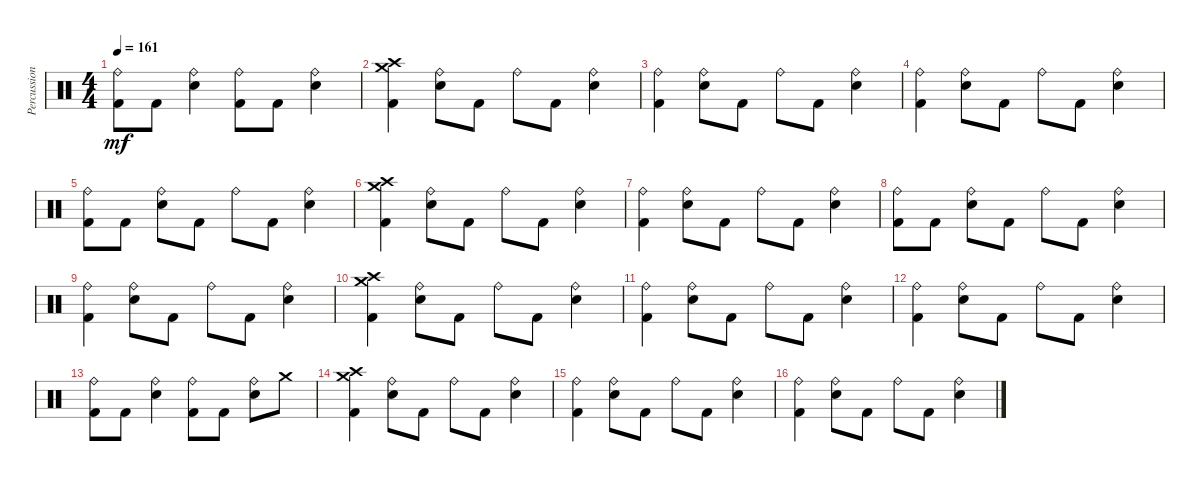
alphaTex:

\track ("Percussion" "Percussion") {instrument percussion}
\staff {score}
\articulation defaults
\ts (4 4)
\tempo 161
\clef neutral
\ks c
("Ride (bell)" "Kick (hit) 2").8{dy mf} "Kick (hit) 2".8 ("Ride (bell)" "Electric Snare (hit)").4 ("Ride (bell)" "Kick (hit) 2").8 "Kick (hit) 2".8 ("Ride (bell)" "Electric Snare (hit)").4 |
("Crash medium (hit)" "Crash high (hit)" "Kick (hit) 2").4 ("Ride (bell)" "Electric Snare (hit)").8 "Kick (hit) 2".8 "Ride (bell)".8 "Kick (hit) 2".8 ("Ride (bell)" "Electric Snare (hit)").4 |
("Ride (bell)" "Kick (hit) 2").4 ("Ride (bell)" "Electric Snare (hit)").8 "Kick (hit) 2".8 "Ride (bell)".8 "Kick (hit) 2".8 ("Ride (bell)" "Electric Snare (hit)").4 |
("Ride (bell)" "Kick (hit) 2").4 ("Ride (bell)" "Electric Snare (hit)").8 "Kick (hit) 2".8 "Ride (bell)".8 "Kick (hit) 2".8 ("Ride (bell)" "Electric Snare (hit)").4 |
("Ride (bell)" "Kick (hit) 2").8 "Kick (hit) 2".8 ("Ride (bell)" "Electric Snare (hit)").8 "Kick (hit) 2".8 "Ride (bell)".8 "Kick (hit) 2".8 ("Ride (bell)" "Electric Snare (hit)").4 |
("Crash medium (hit)" "Crash high (hit)" "Kick (hit) 2").4 ("Ride (bell)" "Electric Snare (hit)").8 "Kick (hit) 2".8 "Ride (bell)".8 "Kick (hit) 2".8 ("Ride (bell)" "Electric Snare (hit)").4 |
("Ride (bell)" "Kick (hit) 2").4 ("Ride (bell)" "Electric Snare (hit)").8 "Kick (hit) 2".8 "Ride (bell)".8 "Kick (hit) 2".8 ("Ride (bell)" "Electric Snare (hit)").4 |
("Ride (bell)" "Kick (hit) 2").8 "Kick (hit) 2".8 ("Ride (bell)" "Electric Snare (hit)").8 "Kick (hit) 2".8 "Ride (bell)".8 "Kick (hit) 2".8 ("Ride (bell)" "Electric Snare (hit)").4 |
("Ride (bell)" "Kick (hit) 2").4 ("Ride (bell)" "Electric Snare (hit)").8 "Kick (hit) 2".8 "Ride (bell)".8 "Kick (hit) 2".8 ("Ride (bell)" "Electric Snare (hit)").4 |
("Crash high (hit)" "Crash medium (hit)" "Kick (hit) 2").4 ("Ride (bell)" "Electric Snare (hit)").8 "Kick (hit) 2".8 "Ride (bell)".8 "Kick (hit) 2".8 ("Ride (bell)" "Electric Snare (hit)").4 |
("Ride (bell)" "Kick (hit) 2").4 ("Ride (bell)" "Electric Snare (hit)").8 "Kick (hit) 2".8 "Ride (bell)".8 "Kick (hit) 2".8 ("Ride (bell)" "Electric Snare (hit)").4 |
("Ride (bell)" "Kick (hit) 2").4 ("Ride (bell)" "Electric Snare (hit)").8 "Kick (hit) 2".8 "Ride (bell)".8 "Kick (hit) 2".8 ("Ride (bell)" "Electric Snare (hit)").4 |
("Ride (bell)" "Kick (hit) 2").8 "Kick (hit) 2".8 ("Ride (bell)" "Electric Snare (hit)").4 ("Ride (bell)" "Kick (hit) 2").8 "Kick (hit) 2".8 ("Ride (bell)" "Electric Snare (hit)").8 "Crash medium (hit)".8 |
("Crash high (hit)" "Crash medium (hit)" "Kick (hit) 2").4 ("Ride (bell)" "Electric Snare (hit)").8 "Kick (hit) 2".8 "Ride (bell)".8 "Kick (hit) 2".8 ("Ride (bell)" "Electric Snare (hit)").4 |
("Ride (bell)" "Kick (hit) 2").4 ("Ride (bell)" "Electric Snare (hit)").8 "Kick (hit) 2".8 "Ride (bell)".8 "Kick (hit) 2".8 ("Ride (bell)" "Electric Snare (hit)").4 |
("Ride (bell)" "Kick (hit) 2").4 ("Ride (bell)" "Electric Snare (hit)").8 "Kick (hit) 2".8 "Ride (bell)".8 "Kick (hit) 2".8 ("Ride (bell)" "Electric Snare (hit)").4
